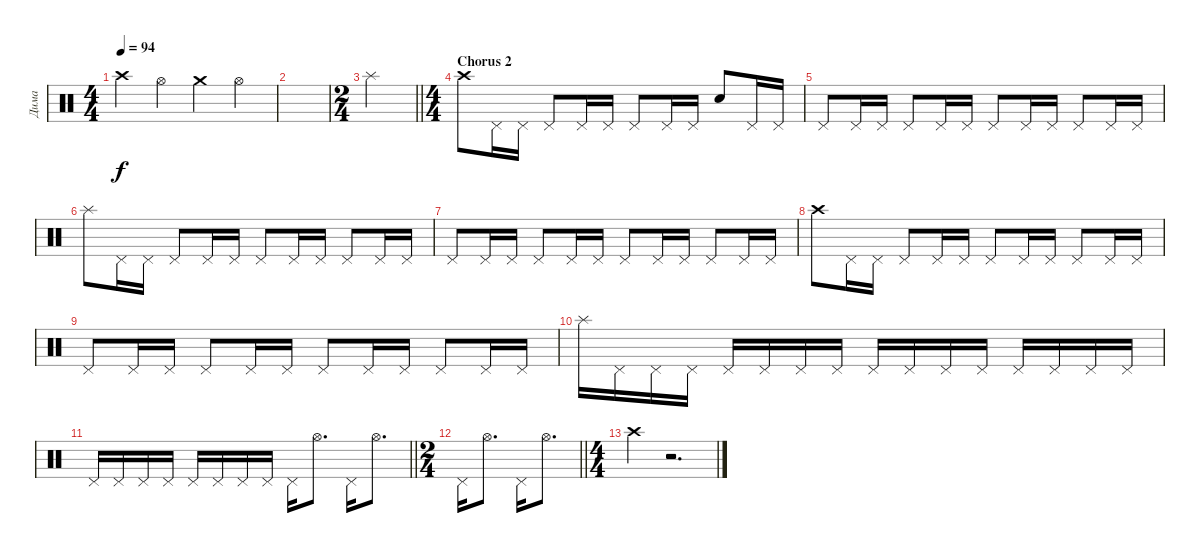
\track ("Дима" "Дима") {instrument percussion}
\staff {score}
\articulation defaults
\ts (4 4)
\tempo 94
\clef neutral
\ks c "Crash high (hit)".4{dy f} "Hi-Hat (open)".4 "Crash medium (hit)".4 "Hi-Hat (open)".4
|
|
\ts (2 4)
\barLineRight lightlight "Splash (hit)".2
|
\ts (4 4)
\section ("" "Chorus 2")
"Crash high (hit)".8 "Pedal Hi-Hat (hit)".16 "Pedal Hi-Hat (hit)".16 "Pedal Hi-Hat (hit)".8 "Pedal Hi-Hat (hit)".16 "Pedal Hi-Hat (hit)".16 "Pedal Hi-Hat (hit)".8 "Pedal Hi-Hat (hit)".16 "Pedal Hi-Hat (hit)".16 "Snare (hit)".8 "Pedal Hi-Hat (hit)".16 "Pedal Hi-Hat (hit)".16 |
"Pedal Hi-Hat (hit)".8 "Pedal Hi-Hat (hit)".16 "Pedal Hi-Hat (hit)".16 "Pedal Hi-Hat (hit)".8 "Pedal Hi-Hat (hit)".16 "Pedal Hi-Hat (hit)".16 "Pedal Hi-Hat (hit)".8 "Pedal Hi-Hat (hit)".16 "Pedal Hi-Hat (hit)".16 "Pedal Hi-Hat (hit)".8 "Pedal Hi-Hat (hit)".16 "Pedal Hi-Hat (hit)".16 |
"Splash (hit)".8 "Pedal Hi-Hat (hit)".16 "Pedal Hi-Hat (hit)".16 "Pedal Hi-Hat (hit)".8 "Pedal Hi-Hat (hit)".16 "Pedal Hi-Hat (hit)".16 "Pedal Hi-Hat (hit)".8 "Pedal Hi-Hat (hit)".16 "Pedal Hi-Hat (hit)".16 "Pedal Hi-Hat (hit)".8 "Pedal Hi-Hat (hit)".16 "Pedal Hi-Hat (hit)".16 |
"Pedal Hi-Hat (hit)".8 "Pedal Hi-Hat (hit)".16 "Pedal Hi-Hat (hit)".16 "Pedal Hi-Hat (hit)".8 "Pedal Hi-Hat (hit)".16 "Pedal Hi-Hat (hit)".16 "Pedal Hi-Hat (hit)".8 "Pedal Hi-Hat (hit)".16 "Pedal Hi-Hat (hit)".16 "Pedal Hi-Hat (hit)".8 "Pedal Hi-Hat (hit)".16 "Pedal Hi-Hat (hit)".16 |
"Crash high (hit)".8 "Pedal Hi-Hat (hit)".16 "Pedal Hi-Hat (hit)".16 "Pedal Hi-Hat (hit)".8 "Pedal Hi-Hat (hit)".16 "Pedal Hi-Hat (hit)".16 "Pedal Hi-Hat (hit)".8 "Pedal Hi-Hat (hit)".16 "Pedal Hi-Hat (hit)".16 "Pedal Hi-Hat (hit)".8 "Pedal Hi-Hat (hit)".16 "Pedal Hi-Hat (hit)".16 |
"Pedal Hi-Hat (hit)".8 "Pedal Hi-Hat (hit)".16 "Pedal Hi-Hat (hit)".16 "Pedal Hi-Hat (hit)".8 "Pedal Hi-Hat (hit)".16 "Pedal Hi-Hat (hit)".16 "Pedal Hi-Hat (hit)".8 "Pedal Hi-Hat (hit)".16 "Pedal Hi-Hat (hit)".16 "Pedal Hi-Hat (hit)".8 "Pedal Hi-Hat (hit)".16 "Pedal Hi-Hat (hit)".16 |
"Splash (hit)".16 "Pedal Hi-Hat (hit)".16 "Pedal Hi-Hat (hit)".16 "Pedal Hi-Hat (hit)".16 "Pedal Hi-Hat (hit)".16 "Pedal Hi-Hat (hit)".16 "Pedal Hi-Hat (hit)".16 "Pedal Hi-Hat (hit)".16 "Pedal Hi-Hat (hit)".16 "Pedal Hi-Hat (hit)".16 "Pedal Hi-Hat (hit)".16 "Pedal Hi-Hat (hit)".16 "Pedal Hi-Hat (hit)".16 "Pedal Hi-Hat (hit)".16 "Pedal Hi-Hat (hit)".16 "Pedal Hi-Hat (hit)".16 |
\barLineRight lightlight "Pedal Hi-Hat (hit)".16 "Pedal Hi-Hat (hit)".16 "Pedal Hi-Hat (hit)".16 "Pedal Hi-Hat (hit)".16 "Pedal Hi-Hat (hit)".16 "Pedal Hi-Hat (hit)".16 "Pedal Hi-Hat (hit)".16 "Pedal Hi-Hat (hit)".16 "Pedal Hi-Hat (hit)".16 "Hi-Hat (open)".8{d} "Pedal Hi-Hat (hit)".16 "Hi-Hat (open)".8{d}
|
\ts (2 4)
\barLineRight lightlight "Pedal Hi-Hat (hit)".16 "Hi-Hat (open)".8{d} "Pedal Hi-Hat (hit)".16 "Hi-Hat (open)".8{d}
|
\ts (4 4)
"Crash high (hit)".4 r.2{d}
